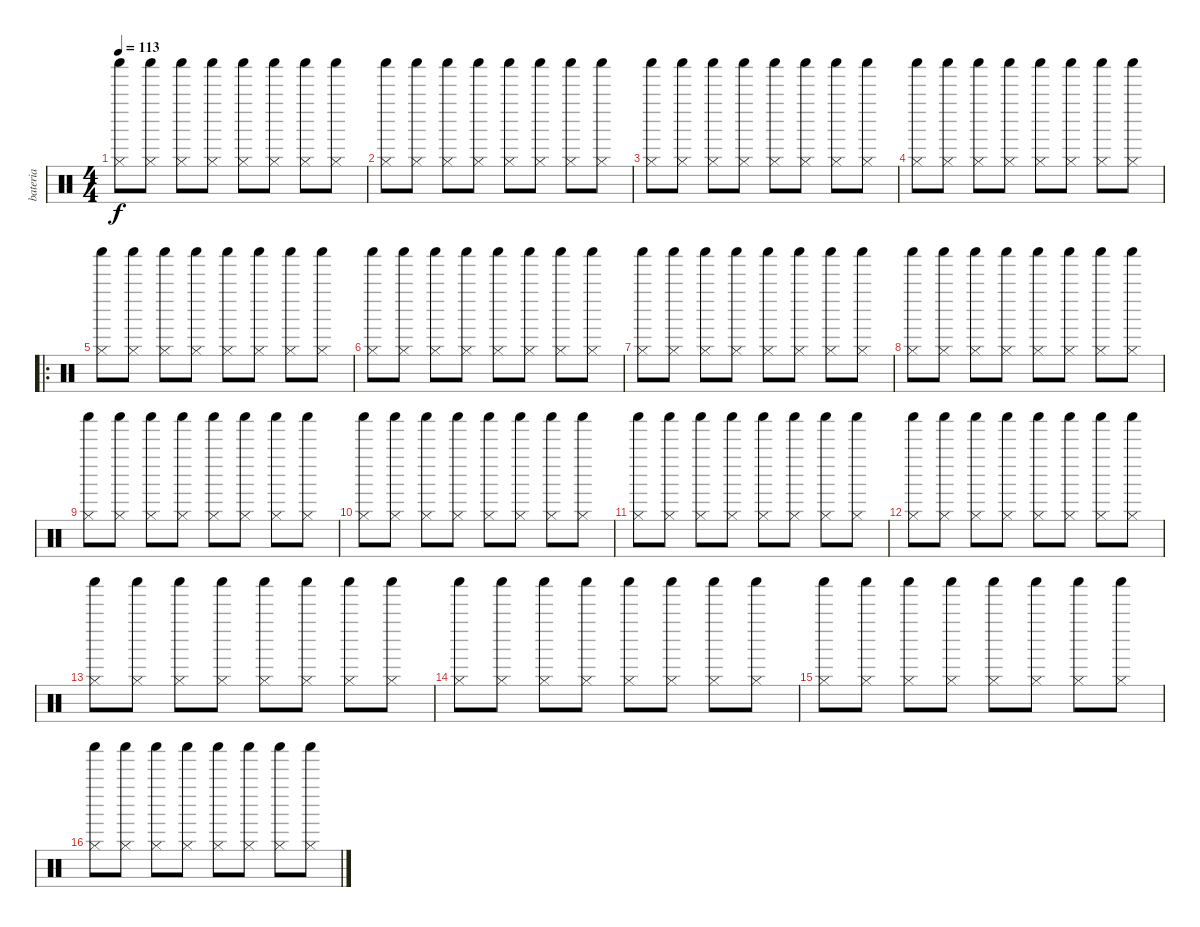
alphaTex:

\track ("bateria" "bateria") {instrument percussion}
\staff {score}
\articulation defaults
\ts (4 4)
\tempo 113
\clef neutral
\ks c
("Shaker (hit)" "Hi-Hat (closed)").8{dy f} ("Shaker (hit)" "Hi-Hat (closed)").8 ("Shaker (hit)" "Hi-Hat (closed)").8 ("Shaker (hit)" "Hi-Hat (closed)").8 ("Shaker (hit)" "Hi-Hat (closed)").8 ("Shaker (hit)" "Hi-Hat (closed)").8 ("Shaker (hit)" "Hi-Hat (closed)").8 ("Shaker (hit)" "Hi-Hat (closed)").8 |
("Shaker (hit)" "Hi-Hat (closed)").8 ("Shaker (hit)" "Hi-Hat (closed)").8 ("Shaker (hit)" "Hi-Hat (closed)").8 ("Shaker (hit)" "Hi-Hat (closed)").8 ("Shaker (hit)" "Hi-Hat (closed)").8 ("Shaker (hit)" "Hi-Hat (closed)").8 ("Shaker (hit)" "Hi-Hat (closed)").8 ("Shaker (hit)" "Hi-Hat (closed)").8 |
("Shaker (hit)" "Hi-Hat (closed)").8 ("Shaker (hit)" "Hi-Hat (closed)").8 ("Shaker (hit)" "Hi-Hat (closed)").8 ("Shaker (hit)" "Hi-Hat (closed)").8 ("Shaker (hit)" "Hi-Hat (closed)").8 ("Shaker (hit)" "Hi-Hat (closed)").8 ("Shaker (hit)" "Hi-Hat (closed)").8 ("Shaker (hit)" "Hi-Hat (closed)").8 |
("Shaker (hit)" "Hi-Hat (closed)").8 ("Shaker (hit)" "Hi-Hat (closed)").8 ("Shaker (hit)" "Hi-Hat (closed)").8 ("Shaker (hit)" "Hi-Hat (closed)").8 ("Shaker (hit)" "Hi-Hat (closed)").8 ("Shaker (hit)" "Hi-Hat (closed)").8 ("Shaker (hit)" "Hi-Hat (closed)").8 ("Shaker (hit)" "Hi-Hat (closed)").8 |
\ro
("Shaker (hit)" "Hi-Hat (closed)").8 ("Shaker (hit)" "Hi-Hat (closed)").8 ("Shaker (hit)" "Hi-Hat (closed)").8 ("Shaker (hit)" "Hi-Hat (closed)").8 ("Shaker (hit)" "Hi-Hat (closed)").8 ("Shaker (hit)" "Hi-Hat (closed)").8 ("Shaker (hit)" "Hi-Hat (closed)").8 ("Shaker (hit)" "Hi-Hat (closed)").8 |
("Shaker (hit)" "Hi-Hat (closed)").8 ("Shaker (hit)" "Hi-Hat (closed)").8 ("Shaker (hit)" "Hi-Hat (closed)").8 ("Shaker (hit)" "Hi-Hat (closed)").8 ("Shaker (hit)" "Hi-Hat (closed)").8 ("Shaker (hit)" "Hi-Hat (closed)").8 ("Shaker (hit)" "Hi-Hat (closed)").8 ("Shaker (hit)" "Hi-Hat (closed)").8 |
("Shaker (hit)" "Hi-Hat (closed)").8 ("Shaker (hit)" "Hi-Hat (closed)").8 ("Shaker (hit)" "Hi-Hat (closed)").8 ("Shaker (hit)" "Hi-Hat (closed)").8 ("Shaker (hit)" "Hi-Hat (closed)").8 ("Shaker (hit)" "Hi-Hat (closed)").8 ("Shaker (hit)" "Hi-Hat (closed)").8 ("Shaker (hit)" "Hi-Hat (closed)").8 |
("Shaker (hit)" "Hi-Hat (closed)").8 ("Shaker (hit)" "Hi-Hat (closed)").8 ("Shaker (hit)" "Hi-Hat (closed)").8 ("Shaker (hit)" "Hi-Hat (closed)").8 ("Shaker (hit)" "Hi-Hat (closed)").8 ("Shaker (hit)" "Hi-Hat (closed)").8 ("Shaker (hit)" "Hi-Hat (closed)").8 ("Shaker (hit)" "Hi-Hat (closed)").8 |
("Shaker (hit)" "Hi-Hat (closed)").8 ("Shaker (hit)" "Hi-Hat (closed)").8 ("Shaker (hit)" "Hi-Hat (closed)").8 ("Shaker (hit)" "Hi-Hat (closed)").8 ("Shaker (hit)" "Hi-Hat (closed)").8 ("Shaker (hit)" "Hi-Hat (closed)").8 ("Shaker (hit)" "Hi-Hat (closed)").8 ("Shaker (hit)" "Hi-Hat (closed)").8 |
("Shaker (hit)" "Hi-Hat (closed)").8 ("Shaker (hit)" "Hi-Hat (closed)").8 ("Shaker (hit)" "Hi-Hat (closed)").8 ("Shaker (hit)" "Hi-Hat (closed)").8 ("Shaker (hit)" "Hi-Hat (closed)").8 ("Shaker (hit)" "Hi-Hat (closed)").8 ("Shaker (hit)" "Hi-Hat (closed)").8 ("Shaker (hit)" "Hi-Hat (closed)").8 |
("Shaker (hit)" "Hi-Hat (closed)").8 ("Shaker (hit)" "Hi-Hat (closed)").8 ("Shaker (hit)" "Hi-Hat (closed)").8 ("Shaker (hit)" "Hi-Hat (closed)").8 ("Shaker (hit)" "Hi-Hat (closed)").8 ("Shaker (hit)" "Hi-Hat (closed)").8 ("Shaker (hit)" "Hi-Hat (closed)").8 ("Shaker (hit)" "Hi-Hat (closed)").8 |
("Shaker (hit)" "Hi-Hat (closed)").8 ("Shaker (hit)" "Hi-Hat (closed)").8 ("Shaker (hit)" "Hi-Hat (closed)").8 ("Shaker (hit)" "Hi-Hat (closed)").8 ("Shaker (hit)" "Hi-Hat (closed)").8 ("Shaker (hit)" "Hi-Hat (closed)").8 ("Shaker (hit)" "Hi-Hat (closed)").8 ("Shaker (hit)" "Hi-Hat (closed)").8 |
("Shaker (hit)" "Hi-Hat (closed)").8 ("Shaker (hit)" "Hi-Hat (closed)").8 ("Shaker (hit)" "Hi-Hat (closed)").8 ("Shaker (hit)" "Hi-Hat (closed)").8 ("Shaker (hit)" "Hi-Hat (closed)").8 ("Shaker (hit)" "Hi-Hat (closed)").8 ("Shaker (hit)" "Hi-Hat (closed)").8 ("Shaker (hit)" "Hi-Hat (closed)").8 |
("Shaker (hit)" "Hi-Hat (closed)").8 ("Shaker (hit)" "Hi-Hat (closed)").8 ("Shaker (hit)" "Hi-Hat (closed)").8 ("Shaker (hit)" "Hi-Hat (closed)").8 ("Shaker (hit)" "Hi-Hat (closed)").8 ("Shaker (hit)" "Hi-Hat (closed)").8 ("Shaker (hit)" "Hi-Hat (closed)").8 ("Shaker (hit)" "Hi-Hat (closed)").8 |
("Shaker (hit)" "Hi-Hat (closed)").8 ("Shaker (hit)" "Hi-Hat (closed)").8 ("Shaker (hit)" "Hi-Hat (closed)").8 ("Shaker (hit)" "Hi-Hat (closed)").8 ("Shaker (hit)" "Hi-Hat (closed)").8 ("Shaker (hit)" "Hi-Hat (closed)").8 ("Shaker (hit)" "Hi-Hat (closed)").8 ("Shaker (hit)" "Hi-Hat (closed)").8 |
("Shaker (hit)" "Hi-Hat (closed)").8 ("Shaker (hit)" "Hi-Hat (closed)").8 ("Shaker (hit)" "Hi-Hat (closed)").8 ("Shaker (hit)" "Hi-Hat (closed)").8 ("Shaker (hit)" "Hi-Hat (closed)").8 ("Shaker (hit)" "Hi-Hat (closed)").8 ("Shaker (hit)" "Hi-Hat (closed)").8 ("Shaker (hit)" "Hi-Hat (closed)").8
